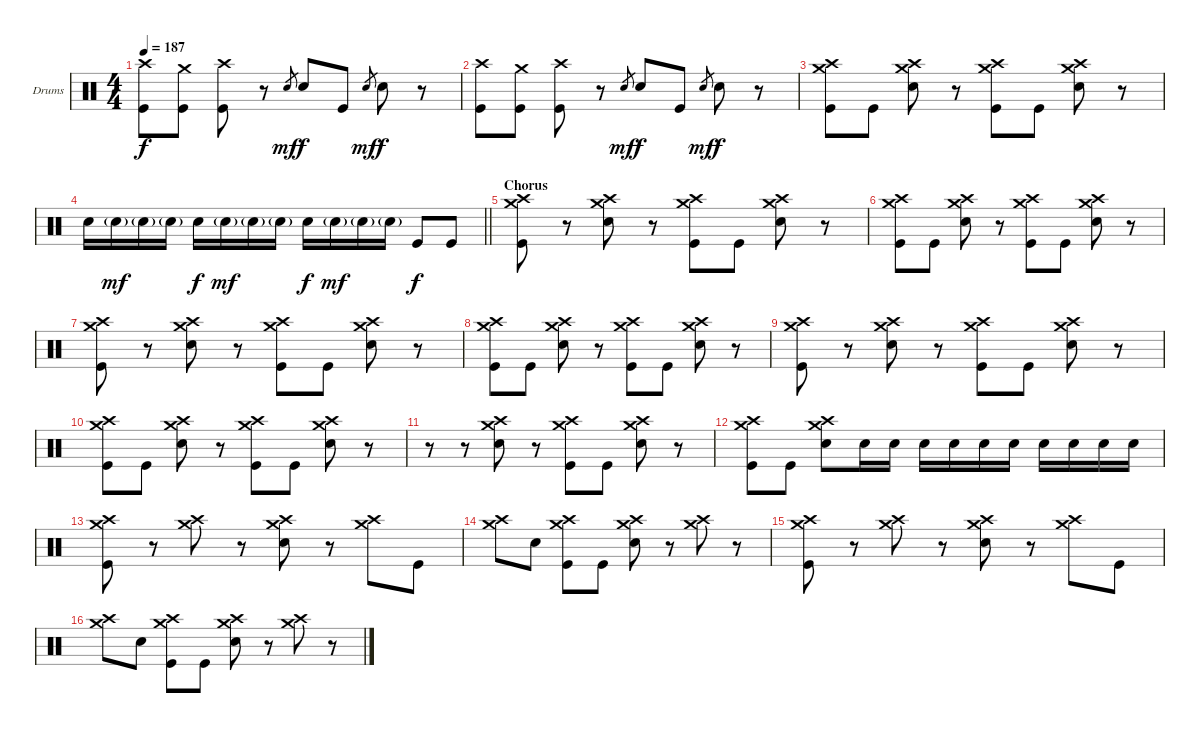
\bracketExtendMode groupsimilarinstruments
\firstSystemTrackNameOrientation horizontal
\otherSystemsTrackNameOrientation horizontal
\track ("Rian Dawson" "Drums") {instrument percussion}
\staff {score}
\articulation defaults
\ts (4 4)
\tempo 187
\clef neutral
\ks c
("Crash high (hit)" "Kick (hit)").8{dy f} ("Crash medium (hit)" "Kick (hit)").8 ("Crash high (hit)" "Kick (hit)").8 r.8 "Snare (hit) 2".8{gr dy mf} "Snare (hit) 2".8{dy f} "Kick (hit)".8 "Snare (hit) 2".8{gr dy mf} "Snare (hit) 2".8{dy f} r.8 |
("Crash high (hit)" "Kick (hit)").8 ("Crash medium (hit)" "Kick (hit)").8 ("Crash high (hit)" "Kick (hit)").8 r.8 "Snare (hit) 2".8{gr dy mf} "Snare (hit) 2".8{dy f} "Kick (hit)".8 "Snare (hit) 2".8{gr dy mf} "Snare (hit) 2".8{dy f} r.8 |
("Crash medium (hit)" "Crash high (hit)" "Kick (hit)").8 "Kick (hit)".8 ("Crash medium (hit)" "Crash high (hit)" "Snare (hit) 2").8 r.8 ("Crash medium (hit)" "Crash high (hit)" "Kick (hit)").8 "Kick (hit)".8 ("Crash medium (hit)" "Crash high (hit)" "Snare (hit) 2").8 r.8 |
\barLineRight lightlight "Snare (hit) 2".16 "Snare (hit) 2"{g}.16{dy mf} "Snare (hit) 2"{g}.16 "Snare (hit) 2"{g}.16 "Snare (hit) 2".16{dy f} "Snare (hit) 2"{g}.16{dy mf} "Snare (hit) 2"{g}.16 "Snare (hit) 2"{g}.16 "Snare (hit) 2".16{dy f} "Snare (hit) 2"{g}.16{dy mf} "Snare (hit) 2"{g}.16 "Snare (hit) 2"{g}.16 "Kick (hit)".8{dy f} "Kick (hit)".8
|
\section ("" "Chorus")
("Crash medium (hit)" "Crash high (hit)" "Kick (hit)").8 r.8 ("Crash medium (hit)" "Crash high (hit)" "Snare (hit) 2").8 r.8 ("Crash medium (hit)" "Crash high (hit)" "Kick (hit)").8 "Kick (hit)".8 ("Crash medium (hit)" "Crash high (hit)" "Snare (hit) 2").8 r.8 |
("Crash medium (hit)" "Crash high (hit)" "Kick (hit)").8 "Kick (hit)".8 ("Crash medium (hit)" "Crash high (hit)" "Snare (hit) 2").8 r.8 ("Crash medium (hit)" "Crash high (hit)" "Kick (hit)").8 "Kick (hit)".8 ("Crash medium (hit)" "Crash high (hit)" "Snare (hit) 2").8 r.8 |
("Crash medium (hit)" "Crash high (hit)" "Kick (hit)").8 r.8 ("Crash medium (hit)" "Crash high (hit)" "Snare (hit) 2").8 r.8 ("Crash medium (hit)" "Crash high (hit)" "Kick (hit)").8 "Kick (hit)".8 ("Crash medium (hit)" "Crash high (hit)" "Snare (hit) 2").8 r.8 |
("Crash medium (hit)" "Crash high (hit)" "Kick (hit)").8 "Kick (hit)".8 ("Crash medium (hit)" "Crash high (hit)" "Snare (hit) 2").8 r.8 ("Crash medium (hit)" "Crash high (hit)" "Kick (hit)").8 "Kick (hit)".8 ("Crash medium (hit)" "Crash high (hit)" "Snare (hit) 2").8 r.8 |
("Crash medium (hit)" "Crash high (hit)" "Kick (hit)").8 r.8 ("Crash medium (hit)" "Crash high (hit)" "Snare (hit) 2").8 r.8 ("Crash medium (hit)" "Crash high (hit)" "Kick (hit)").8 "Kick (hit)".8 ("Crash medium (hit)" "Crash high (hit)" "Snare (hit) 2").8 r.8 |
("Crash medium (hit)" "Crash high (hit)" "Kick (hit)").8 "Kick (hit)".8 ("Crash medium (hit)" "Crash high (hit)" "Snare (hit) 2").8 r.8 ("Crash medium (hit)" "Crash high (hit)" "Kick (hit)").8 "Kick (hit)".8 ("Crash medium (hit)" "Crash high (hit)" "Snare (hit) 2").8 r.8 |
r.8 r.8 ("Crash medium (hit)" "Crash high (hit)" "Snare (hit) 2").8 r.8 ("Crash medium (hit)" "Crash high (hit)" "Kick (hit)").8 "Kick (hit)".8 ("Crash medium (hit)" "Crash high (hit)" "Snare (hit) 2").8 r.8 |
("Crash medium (hit)" "Crash high (hit)" "Kick (hit)").8 "Kick (hit)".8 ("Crash medium (hit)" "Crash high (hit)" "Snare (hit) 2").8 "Snare (hit) 2".16 "Snare (hit) 2".16 "Snare (hit) 2".16 "Snare (hit) 2".16 "Snare (hit) 2".16 "Snare (hit) 2".16 "Snare (hit) 2".16 "Snare (hit) 2".16 "Snare (hit) 2".16 "Snare (hit) 2".16 |
("Crash medium (hit)" "Crash high (hit)" "Kick (hit)").8 r.8 ("Crash medium (hit)" "Crash high (hit)").8 r.8 ("Crash medium (hit)" "Crash high (hit)" "Snare (hit) 2").8 r.8 ("Crash medium (hit)" "Crash high (hit)").8 "Kick (hit)".8 |
("Crash medium (hit)" "Crash high (hit)").8 "Snare (hit) 2".8 ("Crash medium (hit)" "Crash high (hit)" "Kick (hit)").8 "Kick (hit)".8 ("Crash medium (hit)" "Crash high (hit)" "Snare (hit) 2").8 r.8 ("Crash medium (hit)" "Crash high (hit)").8 r.8 |
("Crash medium (hit)" "Crash high (hit)" "Kick (hit)").8 r.8 ("Crash medium (hit)" "Crash high (hit)").8 r.8 ("Crash medium (hit)" "Crash high (hit)" "Snare (hit) 2").8 r.8 ("Crash medium (hit)" "Crash high (hit)").8 "Kick (hit)".8 |
("Crash medium (hit)" "Crash high (hit)").8 "Snare (hit) 2".8 ("Crash medium (hit)" "Crash high (hit)" "Kick (hit)").8 "Kick (hit)".8 ("Crash medium (hit)" "Crash high (hit)" "Snare (hit) 2").8 r.8 ("Crash medium (hit)" "Crash high (hit)").8 r.8
